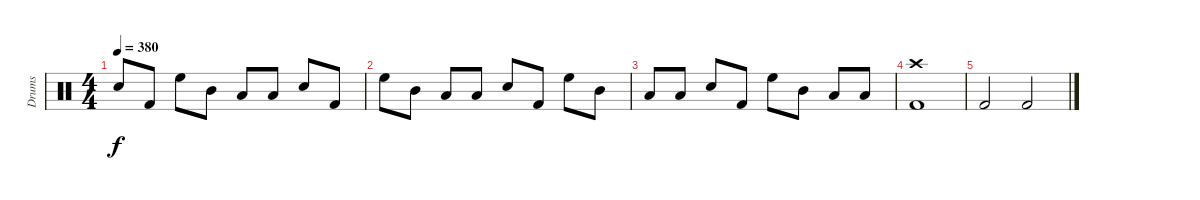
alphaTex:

\track ("Drums" "Drums") {instrument percussion}
\staff {score}
\articulation defaults
\ts (4 4)
\tempo 380
\clef neutral
\ks c "Snare (hit) 2".8{dy f} "Kick (hit) 2".8 "High Floor Tom (hit)".8 "Mid Tom (hit)".8 "Low Tom (hit)".8 "Low Floor Tom (hit)".8 "Snare (hit) 2".8 "Kick (hit) 2".8
|
"High Floor Tom (hit)".8 "Mid Tom (hit)".8 "Low Tom (hit)".8 "Low Floor Tom (hit)".8 "Snare (hit) 2".8 "Kick (hit) 2".8 "High Floor Tom (hit)".8 "Mid Tom (hit)".8 |
"Low Tom (hit)".8 "Low Floor Tom (hit)".8 "Snare (hit) 2".8 "Kick (hit) 2".8 "High Floor Tom (hit)".8 "Mid Tom (hit)".8 "Low Tom (hit)".8 "Low Floor Tom (hit)".8 |
("Crash high (hit)" "Kick (hit) 2").1 |
"Kick (hit) 2".2 "Kick (hit) 2".2
